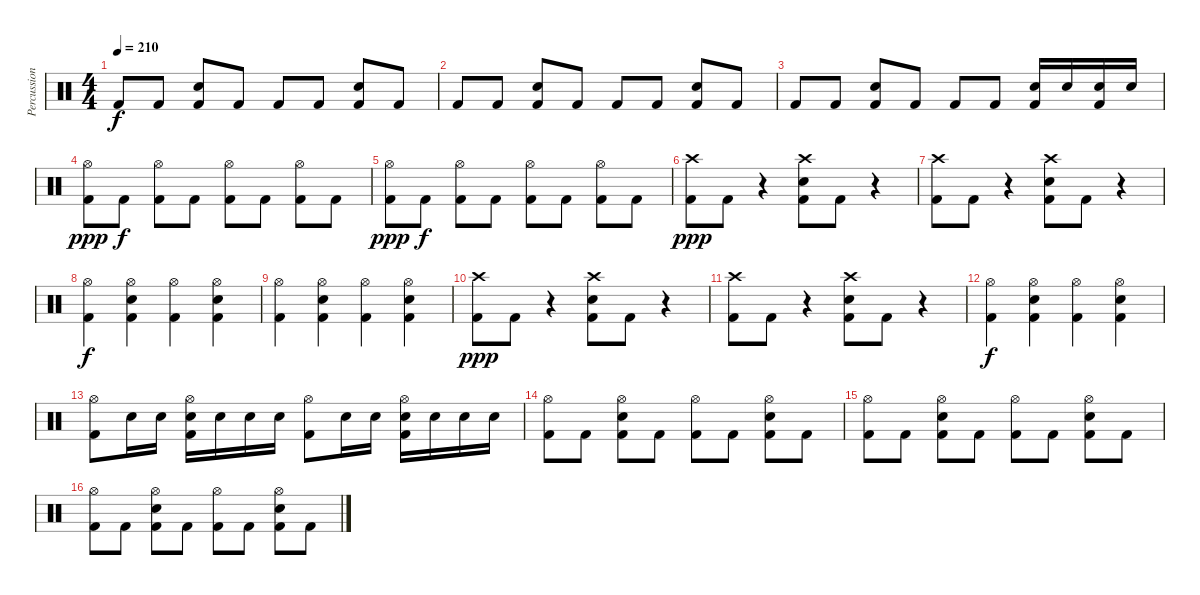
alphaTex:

\track ("Percussion" "Percussion") {instrument percussion}
\staff {score}
\articulation defaults
\ts (4 4)
\tempo 210
\clef neutral
\ks c "Kick (hit) 2".8{dy f} "Kick (hit) 2".8
("Electric Snare (hit)" "Kick (hit) 2").8 "Kick (hit) 2".8 "Kick (hit) 2".8 "Kick (hit) 2".8 ("Electric Snare (hit)" "Kick (hit) 2").8 "Kick (hit) 2".8 |
"Kick (hit) 2".8 "Kick (hit) 2".8 ("Electric Snare (hit)" "Kick (hit) 2").8 "Kick (hit) 2".8 "Kick (hit) 2".8 "Kick (hit) 2".8 ("Electric Snare (hit)" "Kick (hit) 2").8 "Kick (hit) 2".8 |
"Kick (hit) 2".8 "Kick (hit) 2".8 ("Electric Snare (hit)" "Kick (hit) 2").8 "Kick (hit) 2".8 "Kick (hit) 2".8 "Kick (hit) 2".8 ("Electric Snare (hit)" "Kick (hit) 2").16 "Electric Snare (hit)".16 ("Electric Snare (hit)" "Kick (hit) 2").16 "Electric Snare (hit)".16 |
("Hi-Hat (open)" "Kick (hit) 2").8{dy ppp} "Kick (hit) 2".8{dy f} ("Hi-Hat (open)" "Kick (hit) 2").8 "Kick (hit) 2".8 ("Hi-Hat (open)" "Kick (hit) 2").8 "Kick (hit) 2".8 ("Hi-Hat (open)" "Kick (hit) 2").8 "Kick (hit) 2".8 |
("Hi-Hat (open)" "Kick (hit) 2").8{dy ppp} "Kick (hit) 2".8{dy f} ("Hi-Hat (open)" "Kick (hit) 2").8 "Kick (hit) 2".8 ("Hi-Hat (open)" "Kick (hit) 2").8 "Kick (hit) 2".8 ("Hi-Hat (open)" "Kick (hit) 2").8 "Kick (hit) 2".8 |
("Crash high (hit)" "Kick (hit) 2").8{dy ppp} "Kick (hit) 2".8 r.4 ("Crash high (hit)" "Kick (hit) 2" "Electric Snare (hit)").8 "Kick (hit) 2".8 r.4 |
("Crash high (hit)" "Kick (hit) 2").8 "Kick (hit) 2".8 r.4 ("Crash high (hit)" "Kick (hit) 2" "Electric Snare (hit)").8 "Kick (hit) 2".8 r.4 |
("Hi-Hat (open)" "Kick (hit) 2").4{dy f} ("Hi-Hat (open)" "Kick (hit) 2" "Electric Snare (hit)").4 ("Hi-Hat (open)" "Kick (hit) 2").4 ("Hi-Hat (open)" "Kick (hit) 2" "Electric Snare (hit)").4 |
("Hi-Hat (open)" "Kick (hit) 2").4 ("Hi-Hat (open)" "Kick (hit) 2" "Electric Snare (hit)").4 ("Hi-Hat (open)" "Kick (hit) 2").4 ("Hi-Hat (open)" "Kick (hit) 2" "Electric Snare (hit)").4 |
("Crash high (hit)" "Kick (hit) 2").8{dy ppp} "Kick (hit) 2".8 r.4 ("Crash high (hit)" "Kick (hit) 2" "Electric Snare (hit)").8 "Kick (hit) 2".8 r.4 |
("Crash high (hit)" "Kick (hit) 2").8 "Kick (hit) 2".8 r.4 ("Crash high (hit)" "Kick (hit) 2" "Electric Snare (hit)").8 "Kick (hit) 2".8 r.4 |
("Hi-Hat (open)" "Kick (hit) 2").4{dy f} ("Hi-Hat (open)" "Kick (hit) 2" "Electric Snare (hit)").4 ("Hi-Hat (open)" "Kick (hit) 2").4 ("Hi-Hat (open)" "Kick (hit) 2" "Electric Snare (hit)").4 |
("Hi-Hat (open)" "Kick (hit) 2").8 "Electric Snare (hit)".16 "Electric Snare (hit)".16 ("Hi-Hat (open)" "Kick (hit) 2" "Electric Snare (hit)").16 "Electric Snare (hit)".16 "Electric Snare (hit)".16 "Electric Snare (hit)".16 ("Hi-Hat (open)" "Kick (hit) 2").8 "Electric Snare (hit)".16 "Electric Snare (hit)".16 ("Hi-Hat (open)" "Kick (hit) 2" "Electric Snare (hit)").16 "Electric Snare (hit)".16 "Electric Snare (hit)".16 "Electric Snare (hit)".16 |
("Kick (hit) 2" "Hi-Hat (open)").8 "Kick (hit) 2".8 ("Electric Snare (hit)" "Kick (hit) 2" "Hi-Hat (open)").8 "Kick (hit) 2".8 ("Kick (hit) 2" "Hi-Hat (open)").8 "Kick (hit) 2".8 ("Electric Snare (hit)" "Kick (hit) 2" "Hi-Hat (open)").8 "Kick (hit) 2".8 |
("Kick (hit) 2" "Hi-Hat (open)").8 "Kick (hit) 2".8 ("Electric Snare (hit)" "Kick (hit) 2" "Hi-Hat (open)").8 "Kick (hit) 2".8 ("Kick (hit) 2" "Hi-Hat (open)").8 "Kick (hit) 2".8 ("Electric Snare (hit)" "Kick (hit) 2" "Hi-Hat (open)").8 "Kick (hit) 2".8 |
("Kick (hit) 2" "Hi-Hat (open)").8 "Kick (hit) 2".8 ("Electric Snare (hit)" "Kick (hit) 2" "Hi-Hat (open)").8 "Kick (hit) 2".8 ("Kick (hit) 2" "Hi-Hat (open)").8 "Kick (hit) 2".8 ("Electric Snare (hit)" "Kick (hit) 2" "Hi-Hat (open)").8 "Kick (hit) 2".8
